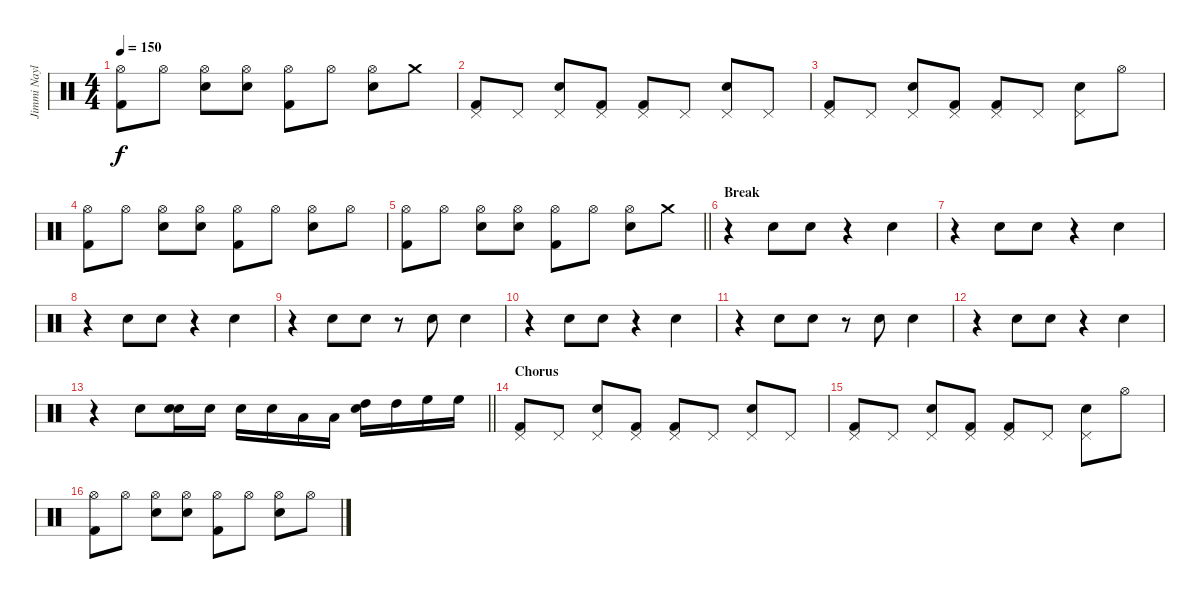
\track ("Jimmi Naylor" "Jimmi Nayl") {instrument percussion}
\staff {score}
\articulation defaults
\ts (4 4)
\tempo 150
\clef neutral
\ks c
("Kick (hit) 2" "Hi-Hat (open)").8{dy f} "Hi-Hat (open)".8 ("Snare (hit) 2" "Hi-Hat (open)").8 ("Snare (hit) 2" "Hi-Hat (open)").8 ("Kick (hit) 2" "Hi-Hat (open)").8 "Hi-Hat (open)".8 ("Snare (hit) 2" "Hi-Hat (open)").8 "Crash medium (hit)".8 |
("Kick (hit) 2" "Pedal Hi-Hat (hit)").8 "Pedal Hi-Hat (hit)".8 ("Electric Snare (hit)" "Pedal Hi-Hat (hit)").8 ("Kick (hit) 2" "Pedal Hi-Hat (hit)").8 ("Kick (hit) 2" "Pedal Hi-Hat (hit)").8 "Pedal Hi-Hat (hit)".8 ("Electric Snare (hit)" "Pedal Hi-Hat (hit)").8 "Pedal Hi-Hat (hit)".8 |
("Kick (hit) 2" "Pedal Hi-Hat (hit)").8 "Pedal Hi-Hat (hit)".8 ("Electric Snare (hit)" "Pedal Hi-Hat (hit)").8 ("Kick (hit) 2" "Pedal Hi-Hat (hit)").8 ("Kick (hit) 2" "Pedal Hi-Hat (hit)").8 "Pedal Hi-Hat (hit)".8 ("Electric Snare (hit)" "Pedal Hi-Hat (hit)").8 "Hi-Hat (open)".8 |
("Kick (hit) 2" "Hi-Hat (open)").8 "Hi-Hat (open)".8 ("Snare (hit) 2" "Hi-Hat (open)").8 ("Snare (hit) 2" "Hi-Hat (open)").8 ("Kick (hit) 2" "Hi-Hat (open)").8 "Hi-Hat (open)".8 ("Snare (hit) 2" "Hi-Hat (open)").8 "Hi-Hat (open)".8 |
\barLineRight lightlight
("Kick (hit) 2" "Hi-Hat (open)").8 "Hi-Hat (open)".8 ("Snare (hit) 2" "Hi-Hat (open)").8 ("Snare (hit) 2" "Hi-Hat (open)").8 ("Kick (hit) 2" "Hi-Hat (open)").8 "Hi-Hat (open)".8 ("Snare (hit) 2" "Hi-Hat (open)").8 "Crash medium (hit)".8 |
\section ("" "Break")
r.4 "Hand Clap (hit)".8 "Hand Clap (hit)".8 r.4 "Hand Clap (hit)".4 |
r.4 "Hand Clap (hit)".8 "Hand Clap (hit)".8 r.4 "Hand Clap (hit)".4 |
r.4 "Hand Clap (hit)".8 "Hand Clap (hit)".8 r.4 "Hand Clap (hit)".4 |
r.4 "Hand Clap (hit)".8 "Hand Clap (hit)".8 r.8 "Hand Clap (hit)".8 "Hand Clap (hit)".4 |
r.4 "Hand Clap (hit)".8 "Hand Clap (hit)".8 r.4 "Hand Clap (hit)".4 |
r.4 "Hand Clap (hit)".8 "Hand Clap (hit)".8 r.8 "Hand Clap (hit)".8 "Hand Clap (hit)".4 |
r.4 "Hand Clap (hit)".8 "Hand Clap (hit)".8 r.4 "Hand Clap (hit)".4 |
\barLineRight lightlight
r.4 "Hand Clap (hit)".8 ("Snare (hit) 2" "Hand Clap (hit)").16 "Snare (hit) 2".16 "Electric Snare (hit)".16 "Electric Snare (hit)".16 "Low Tom (hit)".16 "Low Tom (hit)".16 ("High Tom (hit)" "Hand Clap (hit)").16 "High Tom (hit)".16 "High Floor Tom (hit)".16 "High Floor Tom (hit)".16 |
\section ("" "Chorus")
("Kick (hit) 2" "Pedal Hi-Hat (hit)").8 "Pedal Hi-Hat (hit)".8 ("Electric Snare (hit)" "Pedal Hi-Hat (hit)").8 ("Kick (hit) 2" "Pedal Hi-Hat (hit)").8 ("Kick (hit) 2" "Pedal Hi-Hat (hit)").8 "Pedal Hi-Hat (hit)".8 ("Electric Snare (hit)" "Pedal Hi-Hat (hit)").8 "Pedal Hi-Hat (hit)".8 |
("Kick (hit) 2" "Pedal Hi-Hat (hit)").8 "Pedal Hi-Hat (hit)".8 ("Electric Snare (hit)" "Pedal Hi-Hat (hit)").8 ("Kick (hit) 2" "Pedal Hi-Hat (hit)").8 ("Kick (hit) 2" "Pedal Hi-Hat (hit)").8 "Pedal Hi-Hat (hit)".8 ("Electric Snare (hit)" "Pedal Hi-Hat (hit)").8 "Hi-Hat (open)".8 |
("Kick (hit) 2" "Hi-Hat (open)").8 "Hi-Hat (open)".8 ("Snare (hit) 2" "Hi-Hat (open)").8 ("Snare (hit) 2" "Hi-Hat (open)").8 ("Kick (hit) 2" "Hi-Hat (open)").8 "Hi-Hat (open)".8 ("Snare (hit) 2" "Hi-Hat (open)").8 "Hi-Hat (open)".8
